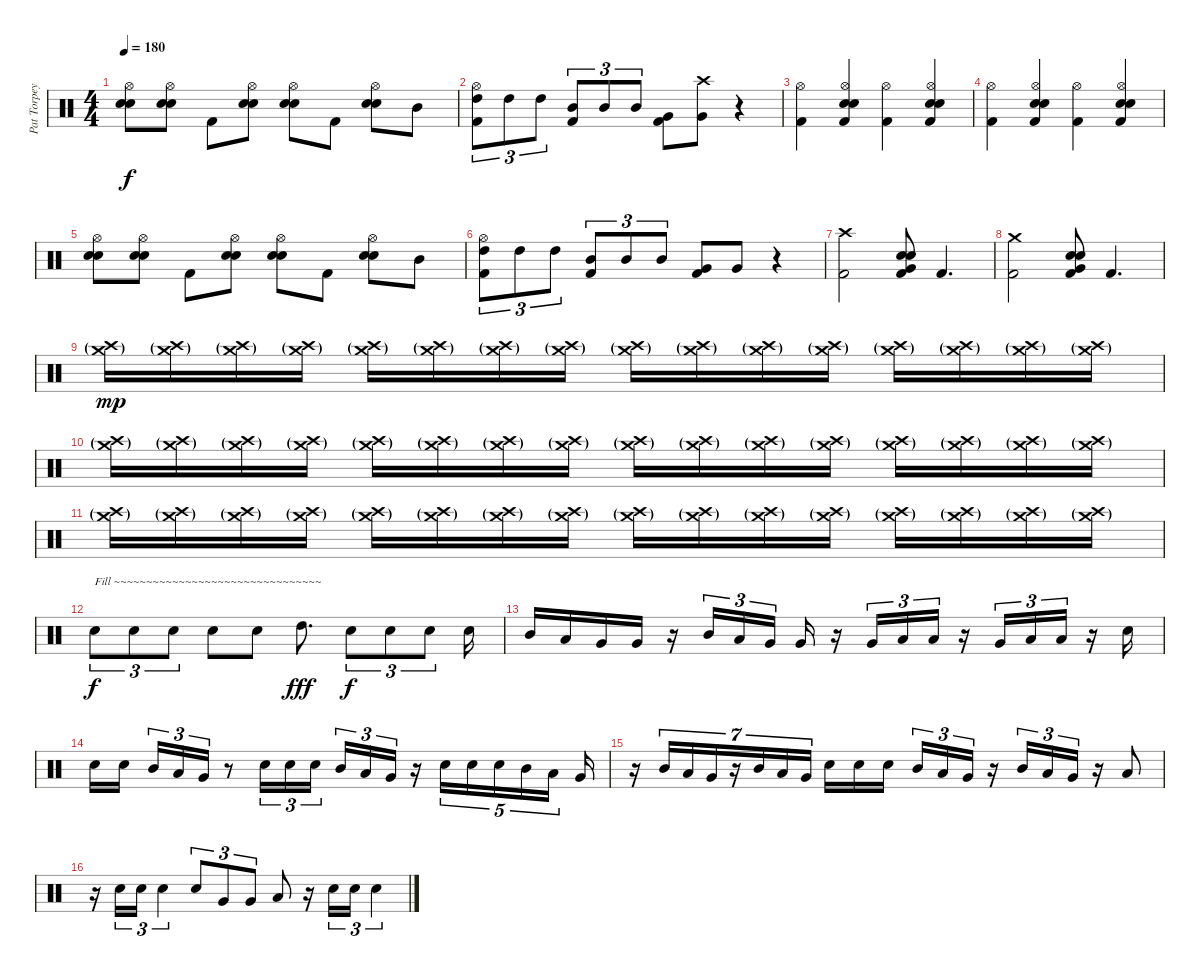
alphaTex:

\track ("Pat Torpey" "Pat Torpey") {instrument percussion}
\staff {score}
\articulation defaults
\ts (4 4)
\tempo 180
\clef neutral
\ks c
("Snare (hit) 2" "Electric Snare (hit)" "Hi-Hat (open)").8{dy f} ("Snare (hit) 2" "Electric Snare (hit)" "Hi-Hat (open)").8 "Kick (hit) 2".8 ("Snare (hit) 2" "Electric Snare (hit)" "Hi-Hat (open)").8 ("Snare (hit) 2" "Electric Snare (hit)" "Hi-Hat (open)").8 "Kick (hit) 2".8 ("Snare (hit) 2" "Electric Snare (hit)" "Hi-Hat (open)").8 "Mid Tom (hit)".8 |
("High Tom (hit)" "Hi-Hat (open)" "Kick (hit) 2").8{tu (3 2)} "High Tom (hit)".8{tu (3 2)} "High Tom (hit)".8{tu (3 2)} ("Mid Tom (hit)" "Kick (hit) 2").8{tu (3 2)} "Mid Tom (hit)".8{tu (3 2)} "Mid Tom (hit)".8{tu (3 2)} ("Very Low Tom (hit)" "Kick (hit) 2").8 ("Crash high (hit)" "Very Low Tom (hit)").8 r.4 |
("Hi-Hat (open)" "Kick (hit) 2").4 ("Hi-Hat (open)" "Snare (hit) 2" "Electric Snare (hit)" "Kick (hit) 2").4 ("Hi-Hat (open)" "Kick (hit) 2").4 ("Hi-Hat (open)" "Snare (hit) 2" "Electric Snare (hit)" "Kick (hit) 2").4 |
("Hi-Hat (open)" "Kick (hit) 2").4 ("Hi-Hat (open)" "Snare (hit) 2" "Electric Snare (hit)" "Kick (hit) 2").4 ("Hi-Hat (open)" "Kick (hit) 2").4 ("Hi-Hat (open)" "Snare (hit) 2" "Electric Snare (hit)" "Kick (hit) 2").4 |
("Snare (hit) 2" "Electric Snare (hit)" "Hi-Hat (open)").8 ("Snare (hit) 2" "Electric Snare (hit)" "Hi-Hat (open)").8 "Kick (hit) 2".8 ("Snare (hit) 2" "Electric Snare (hit)" "Hi-Hat (open)").8 ("Snare (hit) 2" "Electric Snare (hit)" "Hi-Hat (open)").8 "Kick (hit) 2".8 ("Snare (hit) 2" "Electric Snare (hit)" "Hi-Hat (open)").8 "Mid Tom (hit)".8 |
("High Tom (hit)" "Hi-Hat (open)" "Kick (hit) 2").8{tu (3 2)} "High Tom (hit)".8{tu (3 2)} "High Tom (hit)".8{tu (3 2)} ("Mid Tom (hit)" "Kick (hit) 2").8{tu (3 2)} "Mid Tom (hit)".8{tu (3 2)} "Mid Tom (hit)".8{tu (3 2)} ("Very Low Tom (hit)" "Kick (hit) 2").8 "Very Low Tom (hit)".8 r.4 |
("Crash high (hit)" "Kick (hit) 2").2 ("Snare (hit) 2" "Electric Snare (hit)" "Very Low Tom (hit)" "Kick (hit) 2").8 "Kick (hit) 2".4{d} |
("Crash medium (hit)" "Kick (hit) 2").2 ("Snare (hit) 2" "Electric Snare (hit)" "Very Low Tom (hit)" "Kick (hit) 2").8 "Kick (hit) 2".4{d} |
("Crash high (hit)"{g} "Crash medium (hit)"{g}).16{dy mp} ("Crash high (hit)"{g} "Crash medium (hit)"{g}).16 ("Crash high (hit)"{g} "Crash medium (hit)"{g}).16 ("Crash high (hit)"{g} "Crash medium (hit)"{g}).16 ("Crash high (hit)"{g} "Crash medium (hit)"{g}).16 ("Crash high (hit)"{g} "Crash medium (hit)"{g}).16 ("Crash high (hit)"{g} "Crash medium (hit)"{g}).16 ("Crash high (hit)"{g} "Crash medium (hit)"{g}).16 ("Crash high (hit)"{g} "Crash medium (hit)"{g}).16 ("Crash high (hit)"{g} "Crash medium (hit)"{g}).16 ("Crash high (hit)"{g} "Crash medium (hit)"{g}).16 ("Crash high (hit)"{g} "Crash medium (hit)"{g}).16 ("Crash high (hit)"{g} "Crash medium (hit)"{g}).16 ("Crash high (hit)"{g} "Crash medium (hit)"{g}).16 ("Crash high (hit)"{g} "Crash medium (hit)"{g}).16 ("Crash high (hit)"{g} "Crash medium (hit)"{g}).16 |
("Crash high (hit)"{g} "Crash medium (hit)"{g}).16 ("Crash high (hit)"{g} "Crash medium (hit)"{g}).16 ("Crash high (hit)"{g} "Crash medium (hit)"{g}).16 ("Crash high (hit)"{g} "Crash medium (hit)"{g}).16 ("Crash high (hit)"{g} "Crash medium (hit)"{g}).16 ("Crash high (hit)"{g} "Crash medium (hit)"{g}).16 ("Crash high (hit)"{g} "Crash medium (hit)"{g}).16 ("Crash high (hit)"{g} "Crash medium (hit)"{g}).16 ("Crash high (hit)"{g} "Crash medium (hit)"{g}).16 ("Crash high (hit)"{g} "Crash medium (hit)"{g}).16 ("Crash high (hit)"{g} "Crash medium (hit)"{g}).16 ("Crash high (hit)"{g} "Crash medium (hit)"{g}).16 ("Crash high (hit)"{g} "Crash medium (hit)"{g}).16 ("Crash high (hit)"{g} "Crash medium (hit)"{g}).16 ("Crash high (hit)"{g} "Crash medium (hit)"{g}).16 ("Crash high (hit)"{g} "Crash medium (hit)"{g}).16 |
("Crash high (hit)"{g} "Crash medium (hit)"{g}).16 ("Crash high (hit)"{g} "Crash medium (hit)"{g}).16 ("Crash high (hit)"{g} "Crash medium (hit)"{g}).16 ("Crash high (hit)"{g} "Crash medium (hit)"{g}).16 ("Crash high (hit)"{g} "Crash medium (hit)"{g}).16 ("Crash high (hit)"{g} "Crash medium (hit)"{g}).16 ("Crash high (hit)"{g} "Crash medium (hit)"{g}).16 ("Crash high (hit)"{g} "Crash medium (hit)"{g}).16 ("Crash high (hit)"{g} "Crash medium (hit)"{g}).16 ("Crash high (hit)"{g} "Crash medium (hit)"{g}).16 ("Crash high (hit)"{g} "Crash medium (hit)"{g}).16 ("Crash high (hit)"{g} "Crash medium (hit)"{g}).16 ("Crash high (hit)"{g} "Crash medium (hit)"{g}).16 ("Crash high (hit)"{g} "Crash medium (hit)"{g}).16 ("Crash high (hit)"{g} "Crash medium (hit)"{g}).16 ("Crash high (hit)"{g} "Crash medium (hit)"{g}).16 |
"Electric Snare (hit)".8{tu (3 2) txt "Fill ~~~~~~~~~~~~~~~~~~~~~~~~~~~~~~~~" dy f} "Electric Snare (hit)".8{tu (3 2)} "Electric Snare (hit)".8{tu (3 2)} "Electric Snare (hit)".8 "Electric Snare (hit)".8 "High Tom (hit)".8{d dy fff} "Electric Snare (hit)".8{tu (3 2) dy f} "Electric Snare (hit)".8{tu (3 2)} "Electric Snare (hit)".8{tu (3 2)} "Electric Snare (hit)".16 |
"Mid Tom (hit)".16 "Low Tom (hit)".16 "Very Low Tom (hit)".16 "Very Low Tom (hit)".16 r.16 "Mid Tom (hit)".16{tu (3 2)} "Low Tom (hit)".16{tu (3 2)} "Very Low Tom (hit)".16{tu (3 2) beam splitsecondary} "Very Low Tom (hit)".16 r.16 "Very Low Tom (hit)".16{tu (3 2)} "Low Floor Tom (hit)".16{tu (3 2)} "Low Floor Tom (hit)".16{tu (3 2)} r.16 "Very Low Tom (hit)".16{tu (3 2)} "Low Floor Tom (hit)".16{tu (3 2)} "Low Floor Tom (hit)".16{tu (3 2)} r.16 "Electric Snare (hit)".16 |
"Electric Snare (hit)".16 "Electric Snare (hit)".16{beam splitsecondary} "Mid Tom (hit)".16{tu (3 2)} "Low Tom (hit)".16{tu (3 2)} "Very Low Tom (hit)".16{tu (3 2)} r.8 "Electric Snare (hit)".16{tu (3 2)} "Electric Snare (hit)".16{tu (3 2)} "Electric Snare (hit)".16{tu (3 2)} "Mid Tom (hit)".16{tu (3 2)} "Low Tom (hit)".16{tu (3 2)} "Very Low Tom (hit)".16{tu (3 2)} r.16 "Electric Snare (hit)".16{tu (5 4)} "Electric Snare (hit)".16{tu (5 4)} "Electric Snare (hit)".16{tu (5 4)} "Mid Tom (hit)".16{tu (5 4)} "Low Tom (hit)".16{tu (5 4) beam splitsecondary} "Very Low Tom (hit)".16 |
r.16 "Mid Tom (hit)".16{tu (7 4)} "Low Tom (hit)".16{tu (7 4)} "Very Low Tom (hit)".16{tu (7 4)} r.16{tu (7 4)} "Mid Tom (hit)".16{tu (7 4)} "Low Tom (hit)".16{tu (7 4)} "Very Low Tom (hit)".16{tu (7 4) beam splitsecondary} "Electric Snare (hit)".16 "Electric Snare (hit)".16 "Electric Snare (hit)".16 "Mid Tom (hit)".16{tu (3 2)} "Low Tom (hit)".16{tu (3 2)} "Very Low Tom (hit)".16{tu (3 2)} r.16 "Mid Tom (hit)".16{tu (3 2)} "Low Tom (hit)".16{tu (3 2)} "Very Low Tom (hit)".16{tu (3 2)} r.16 "Low Tom (hit)".8 |
r.16 "Electric Snare (hit)".16{tu (3 2)} "Electric Snare (hit)".16{tu (3 2)} "Electric Snare (hit)".4{tu (3 2)} "Electric Snare (hit)".8{tu (3 2)} "Very Low Tom (hit)".8{tu (3 2)} "Very Low Tom (hit)".8{tu (3 2)} "Low Tom (hit)".8 r.16 "Electric Snare (hit)".16{tu (3 2)} "Electric Snare (hit)".16{tu (3 2)} "Electric Snare (hit)".4{tu (3 2)}
